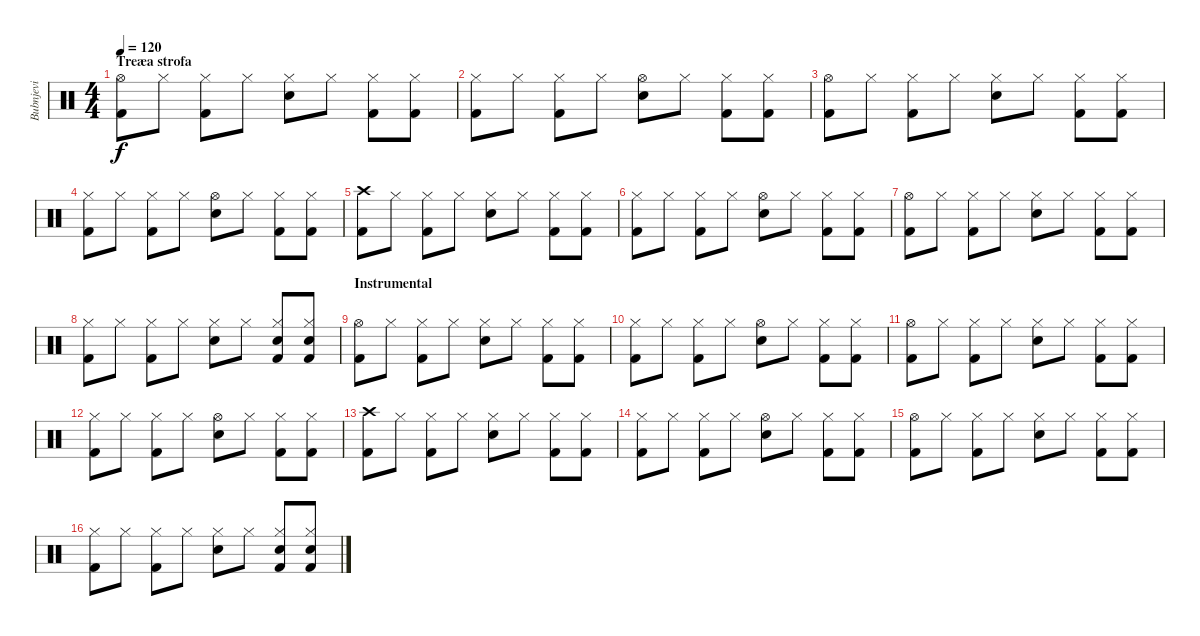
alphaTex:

\track ("Bubnjevi" "Bubnjevi") {instrument percussion}
\staff {score}
\articulation defaults
\ts (4 4)
\section ("" "Treæa strofa")
\tempo 120
\clef neutral
\ks c
("Hi-Hat (open)" "Kick (hit) 2").8{dy f} "Hi-Hat (closed)".8 ("Hi-Hat (closed)" "Kick (hit) 2").8 "Hi-Hat (closed)".8 ("Hi-Hat (closed)" "Snare (hit) 2").8 "Hi-Hat (closed)".8 ("Hi-Hat (closed)" "Kick (hit) 2").8 ("Hi-Hat (closed)" "Kick (hit) 2").8 |
("Hi-Hat (closed)" "Kick (hit) 2").8 "Hi-Hat (closed)".8 ("Hi-Hat (closed)" "Kick (hit) 2").8 "Hi-Hat (closed)".8 ("Hi-Hat (open)" "Snare (hit) 2").8 "Hi-Hat (closed)".8 ("Hi-Hat (closed)" "Kick (hit) 2").8 ("Hi-Hat (closed)" "Kick (hit) 2").8 |
("Hi-Hat (open)" "Kick (hit) 2").8 "Hi-Hat (closed)".8 ("Hi-Hat (closed)" "Kick (hit) 2").8 "Hi-Hat (closed)".8 ("Hi-Hat (closed)" "Snare (hit) 2").8 "Hi-Hat (closed)".8 ("Hi-Hat (closed)" "Kick (hit) 2").8 ("Hi-Hat (closed)" "Kick (hit) 2").8 |
("Hi-Hat (closed)" "Kick (hit) 2").8 "Hi-Hat (closed)".8 ("Hi-Hat (closed)" "Kick (hit) 2").8 "Hi-Hat (closed)".8 ("Hi-Hat (open)" "Snare (hit) 2").8 "Hi-Hat (closed)".8 ("Hi-Hat (closed)" "Kick (hit) 2").8 ("Hi-Hat (closed)" "Kick (hit) 2").8 |
("Crash high (hit)" "Kick (hit) 2").8 "Hi-Hat (closed)".8 ("Hi-Hat (closed)" "Kick (hit) 2").8 "Hi-Hat (closed)".8 ("Hi-Hat (closed)" "Snare (hit) 2").8 "Hi-Hat (closed)".8 ("Hi-Hat (closed)" "Kick (hit) 2").8 ("Hi-Hat (closed)" "Kick (hit) 2").8 |
("Hi-Hat (closed)" "Kick (hit) 2").8 "Hi-Hat (closed)".8 ("Hi-Hat (closed)" "Kick (hit) 2").8 "Hi-Hat (closed)".8 ("Hi-Hat (open)" "Snare (hit) 2").8 "Hi-Hat (closed)".8 ("Hi-Hat (closed)" "Kick (hit) 2").8 ("Hi-Hat (closed)" "Kick (hit) 2").8 |
("Hi-Hat (open)" "Kick (hit) 2").8 "Hi-Hat (closed)".8 ("Hi-Hat (closed)" "Kick (hit) 2").8 "Hi-Hat (closed)".8 ("Hi-Hat (closed)" "Snare (hit) 2").8 "Hi-Hat (closed)".8 ("Hi-Hat (closed)" "Kick (hit) 2").8 ("Hi-Hat (closed)" "Kick (hit) 2").8 |
("Hi-Hat (closed)" "Kick (hit) 2").8 "Hi-Hat (closed)".8 ("Hi-Hat (closed)" "Kick (hit) 2").8 "Hi-Hat (closed)".8 ("Hi-Hat (closed)" "Snare (hit) 2").8 "Hi-Hat (closed)".8 ("Hi-Hat (closed)" "Snare (hit) 2" "Kick (hit) 2").8 ("Hi-Hat (closed)" "Snare (hit) 2" "Kick (hit) 2").8 |
\section ("" "Instrumental")
("Hi-Hat (open)" "Kick (hit) 2").8 "Hi-Hat (closed)".8 ("Hi-Hat (closed)" "Kick (hit) 2").8 "Hi-Hat (closed)".8 ("Hi-Hat (closed)" "Snare (hit) 2").8 "Hi-Hat (closed)".8 ("Hi-Hat (closed)" "Kick (hit) 2").8 ("Hi-Hat (closed)" "Kick (hit) 2").8 |
("Hi-Hat (closed)" "Kick (hit) 2").8 "Hi-Hat (closed)".8 ("Hi-Hat (closed)" "Kick (hit) 2").8 "Hi-Hat (closed)".8 ("Hi-Hat (open)" "Snare (hit) 2").8 "Hi-Hat (closed)".8 ("Hi-Hat (closed)" "Kick (hit) 2").8 ("Hi-Hat (closed)" "Kick (hit) 2").8 |
("Hi-Hat (open)" "Kick (hit) 2").8 "Hi-Hat (closed)".8 ("Hi-Hat (closed)" "Kick (hit) 2").8 "Hi-Hat (closed)".8 ("Hi-Hat (closed)" "Snare (hit) 2").8 "Hi-Hat (closed)".8 ("Hi-Hat (closed)" "Kick (hit) 2").8 ("Hi-Hat (closed)" "Kick (hit) 2").8 |
("Hi-Hat (closed)" "Kick (hit) 2").8 "Hi-Hat (closed)".8 ("Hi-Hat (closed)" "Kick (hit) 2").8 "Hi-Hat (closed)".8 ("Hi-Hat (open)" "Snare (hit) 2").8 "Hi-Hat (closed)".8 ("Hi-Hat (closed)" "Kick (hit) 2").8 ("Hi-Hat (closed)" "Kick (hit) 2").8 |
("Crash high (hit)" "Kick (hit) 2").8 "Hi-Hat (closed)".8 ("Hi-Hat (closed)" "Kick (hit) 2").8 "Hi-Hat (closed)".8 ("Hi-Hat (closed)" "Snare (hit) 2").8 "Hi-Hat (closed)".8 ("Hi-Hat (closed)" "Kick (hit) 2").8 ("Hi-Hat (closed)" "Kick (hit) 2").8 |
("Hi-Hat (closed)" "Kick (hit) 2").8 "Hi-Hat (closed)".8 ("Hi-Hat (closed)" "Kick (hit) 2").8 "Hi-Hat (closed)".8 ("Hi-Hat (open)" "Snare (hit) 2").8 "Hi-Hat (closed)".8 ("Hi-Hat (closed)" "Kick (hit) 2").8 ("Hi-Hat (closed)" "Kick (hit) 2").8 |
("Hi-Hat (open)" "Kick (hit) 2").8 "Hi-Hat (closed)".8 ("Hi-Hat (closed)" "Kick (hit) 2").8 "Hi-Hat (closed)".8 ("Hi-Hat (closed)" "Snare (hit) 2").8 "Hi-Hat (closed)".8 ("Hi-Hat (closed)" "Kick (hit) 2").8 ("Hi-Hat (closed)" "Kick (hit) 2").8 |
("Hi-Hat (closed)" "Kick (hit) 2").8 "Hi-Hat (closed)".8 ("Hi-Hat (closed)" "Kick (hit) 2").8 "Hi-Hat (closed)".8 ("Hi-Hat (closed)" "Snare (hit) 2").8 "Hi-Hat (closed)".8 ("Hi-Hat (closed)" "Snare (hit) 2" "Kick (hit) 2").8 ("Hi-Hat (closed)" "Snare (hit) 2" "Kick (hit) 2").8
